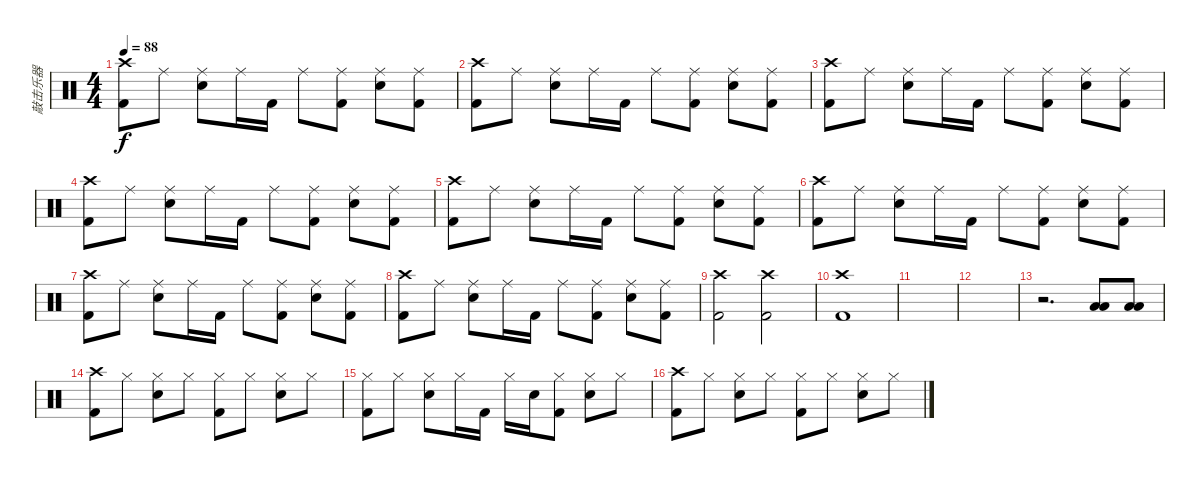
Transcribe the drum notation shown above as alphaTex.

\track ("敲击乐器" "敲击乐器") {instrument percussion}
\staff {score}
\articulation defaults
\ts (4 4)
\tempo 88
\clef neutral
\ks c
("Crash high (hit)" "Kick (hit) 2").8{dy f} "Ride (middle)".8 ("Ride (middle)" "Electric Snare (hit)").8 "Ride (middle)".16 "Kick (hit) 2".16 "Ride (middle)".8 ("Ride (middle)" "Kick (hit) 2").8 ("Ride (middle)" "Electric Snare (hit)").8 ("Ride (middle)" "Kick (hit) 2").8 |
("Crash high (hit)" "Kick (hit) 2").8 "Ride (middle)".8 ("Ride (middle)" "Electric Snare (hit)").8 "Ride (middle)".16 "Kick (hit) 2".16 "Ride (middle)".8 ("Ride (middle)" "Kick (hit) 2").8 ("Ride (middle)" "Electric Snare (hit)").8 ("Ride (middle)" "Kick (hit) 2").8 |
("Crash high (hit)" "Kick (hit) 2").8 "Ride (middle)".8 ("Ride (middle)" "Electric Snare (hit)").8 "Ride (middle)".16 "Kick (hit) 2".16 "Ride (middle)".8 ("Ride (middle)" "Kick (hit) 2").8 ("Ride (middle)" "Electric Snare (hit)").8 ("Ride (middle)" "Kick (hit) 2").8 |
("Crash high (hit)" "Kick (hit) 2").8 "Ride (middle)".8 ("Ride (middle)" "Electric Snare (hit)").8 "Ride (middle)".16 "Kick (hit) 2".16 "Ride (middle)".8 ("Ride (middle)" "Kick (hit) 2").8 ("Ride (middle)" "Electric Snare (hit)").8 ("Ride (middle)" "Kick (hit) 2").8 |
("Crash high (hit)" "Kick (hit) 2").8 "Ride (middle)".8 ("Ride (middle)" "Electric Snare (hit)").8 "Ride (middle)".16 "Kick (hit) 2".16 "Ride (middle)".8 ("Ride (middle)" "Kick (hit) 2").8 ("Ride (middle)" "Electric Snare (hit)").8 ("Ride (middle)" "Kick (hit) 2").8 |
("Crash high (hit)" "Kick (hit) 2").8 "Ride (middle)".8 ("Ride (middle)" "Electric Snare (hit)").8 "Ride (middle)".16 "Kick (hit) 2".16 "Ride (middle)".8 ("Ride (middle)" "Kick (hit) 2").8 ("Ride (middle)" "Electric Snare (hit)").8 ("Ride (middle)" "Kick (hit) 2").8 |
("Crash high (hit)" "Kick (hit) 2").8 "Ride (middle)".8 ("Ride (middle)" "Electric Snare (hit)").8 "Ride (middle)".16 "Kick (hit) 2".16 "Ride (middle)".8 ("Ride (middle)" "Kick (hit) 2").8 ("Ride (middle)" "Electric Snare (hit)").8 ("Ride (middle)" "Kick (hit) 2").8 |
("Crash high (hit)" "Kick (hit) 2").8 "Ride (middle)".8 ("Ride (middle)" "Electric Snare (hit)").8 "Ride (middle)".16 "Kick (hit) 2".16 "Ride (middle)".8 ("Ride (middle)" "Kick (hit) 2").8 ("Ride (middle)" "Electric Snare (hit)").8 ("Ride (middle)" "Kick (hit) 2").8 |
("Crash high (hit)" "Kick (hit) 2").2 ("Crash high (hit)" "Kick (hit) 2").2 |
("Crash high (hit)" "Kick (hit) 2").1 |
|
|
r.2{d} ("Low Tom (hit)" "Low Floor Tom (hit)").8 ("Low Tom (hit)" "Low Floor Tom (hit)").8 |
("Crash high (hit)" "Kick (hit) 2").8 "Hi-Hat (closed)".8 ("Hi-Hat (closed)" "Electric Snare (hit)").8 "Hi-Hat (closed)".8 ("Hi-Hat (closed)" "Kick (hit) 2").8 "Hi-Hat (closed)".8 ("Hi-Hat (closed)" "Electric Snare (hit)").8 "Hi-Hat (closed)".8 |
("Hi-Hat (closed)" "Kick (hit) 2").8 "Hi-Hat (closed)".8 ("Hi-Hat (closed)" "Electric Snare (hit)").8 "Hi-Hat (closed)".16 "Kick (hit) 2".16 "Hi-Hat (closed)".16 "Electric Snare (hit)".16 ("Hi-Hat (closed)" "Kick (hit) 2").8 ("Hi-Hat (closed)" "Electric Snare (hit)").8 "Hi-Hat (closed)".8 |
("Crash high (hit)" "Kick (hit) 2").8 "Hi-Hat (closed)".8 ("Hi-Hat (closed)" "Electric Snare (hit)").8 "Hi-Hat (closed)".8 ("Hi-Hat (closed)" "Kick (hit) 2").8 "Hi-Hat (closed)".8 ("Hi-Hat (closed)" "Electric Snare (hit)").8 "Hi-Hat (closed)".8
